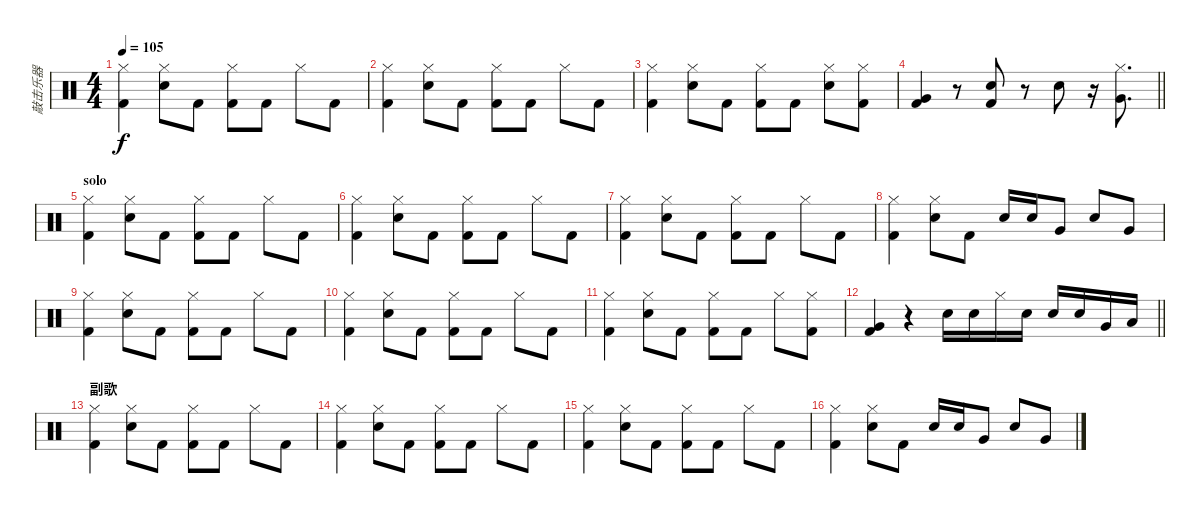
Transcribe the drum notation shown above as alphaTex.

\track ("敲击乐器" "敲击乐器") {instrument percussion}
\staff {score}
\articulation defaults
\ts (4 4)
\tempo 105
\clef neutral
\ks c
("Kick (hit) 2" "Hi-Hat (closed)").4{dy f} ("Electric Snare (hit)" "Hi-Hat (closed)").8 "Kick (hit) 2".8 ("Kick (hit) 2" "Hi-Hat (closed)").8 "Kick (hit) 2".8 "Hi-Hat (closed)".8 "Kick (hit) 2".8 |
("Kick (hit) 2" "Hi-Hat (closed)").4 ("Electric Snare (hit)" "Hi-Hat (closed)").8 "Kick (hit) 2".8 ("Kick (hit) 2" "Hi-Hat (closed)").8 "Kick (hit) 2".8 "Hi-Hat (closed)".8 "Kick (hit) 2".8 |
("Kick (hit) 2" "Hi-Hat (closed)").4 ("Electric Snare (hit)" "Hi-Hat (closed)").8 "Kick (hit) 2".8 ("Kick (hit) 2" "Hi-Hat (closed)").8 "Kick (hit) 2".8 ("Electric Snare (hit)" "Hi-Hat (closed)").8 ("Kick (hit) 2" "Hi-Hat (closed)").8 |
\barLineRight lightlight
("Kick (hit) 2" "Very Low Tom (hit)").4 r.8 ("Electric Snare (hit)" "Kick (hit) 2").8 r.8 "Electric Snare (hit)".8 r.16 ("Hi-Hat (closed)" "Very Low Tom (hit)").8{d} |
\section ("" "solo")
("Kick (hit) 2" "Hi-Hat (closed)").4 ("Electric Snare (hit)" "Hi-Hat (closed)").8 "Kick (hit) 2".8 ("Kick (hit) 2" "Hi-Hat (closed)").8 "Kick (hit) 2".8 "Hi-Hat (closed)".8 "Kick (hit) 2".8 |
("Kick (hit) 2" "Hi-Hat (closed)").4 ("Electric Snare (hit)" "Hi-Hat (closed)").8 "Kick (hit) 2".8 ("Kick (hit) 2" "Hi-Hat (closed)").8 "Kick (hit) 2".8 "Hi-Hat (closed)".8 "Kick (hit) 2".8 |
("Kick (hit) 2" "Hi-Hat (closed)").4 ("Electric Snare (hit)" "Hi-Hat (closed)").8 "Kick (hit) 2".8 ("Kick (hit) 2" "Hi-Hat (closed)").8 "Kick (hit) 2".8 "Hi-Hat (closed)".8 "Kick (hit) 2".8 |
("Kick (hit) 2" "Hi-Hat (closed)").4 ("Electric Snare (hit)" "Hi-Hat (closed)").8 "Kick (hit) 2".8 "Electric Snare (hit)".16 "Electric Snare (hit)".16 "Very Low Tom (hit)".8 "Electric Snare (hit)".8 "Very Low Tom (hit)".8 |
("Kick (hit) 2" "Hi-Hat (closed)").4 ("Electric Snare (hit)" "Hi-Hat (closed)").8 "Kick (hit) 2".8 ("Kick (hit) 2" "Hi-Hat (closed)").8 "Kick (hit) 2".8 "Hi-Hat (closed)".8 "Kick (hit) 2".8 |
("Kick (hit) 2" "Hi-Hat (closed)").4 ("Electric Snare (hit)" "Hi-Hat (closed)").8 "Kick (hit) 2".8 ("Kick (hit) 2" "Hi-Hat (closed)").8 "Kick (hit) 2".8 "Hi-Hat (closed)".8 "Kick (hit) 2".8 |
("Kick (hit) 2" "Hi-Hat (closed)").4 ("Electric Snare (hit)" "Hi-Hat (closed)").8 "Kick (hit) 2".8 ("Kick (hit) 2" "Hi-Hat (closed)").8 "Kick (hit) 2".8 "Hi-Hat (closed)".8 ("Kick (hit) 2" "Hi-Hat (closed)").8 |
\barLineRight lightlight
("Kick (hit) 2" "Very Low Tom (hit)").4 r.4 "Electric Snare (hit)".16 "Electric Snare (hit)".16 "Hi-Hat (closed)".16 "Electric Snare (hit)".16 "Electric Snare (hit)".16 "Electric Snare (hit)".16 "Very Low Tom (hit)".16 "Low Floor Tom (hit)".16 |
\section ("" "副歌")
("Kick (hit) 2" "Hi-Hat (closed)").4 ("Electric Snare (hit)" "Hi-Hat (closed)").8 "Kick (hit) 2".8 ("Kick (hit) 2" "Hi-Hat (closed)").8 "Kick (hit) 2".8 "Hi-Hat (closed)".8 "Kick (hit) 2".8 |
("Kick (hit) 2" "Hi-Hat (closed)").4 ("Electric Snare (hit)" "Hi-Hat (closed)").8 "Kick (hit) 2".8 ("Kick (hit) 2" "Hi-Hat (closed)").8 "Kick (hit) 2".8 "Hi-Hat (closed)".8 "Kick (hit) 2".8 |
("Kick (hit) 2" "Hi-Hat (closed)").4 ("Electric Snare (hit)" "Hi-Hat (closed)").8 "Kick (hit) 2".8 ("Kick (hit) 2" "Hi-Hat (closed)").8 "Kick (hit) 2".8 "Hi-Hat (closed)".8 "Kick (hit) 2".8 |
("Kick (hit) 2" "Hi-Hat (closed)").4 ("Electric Snare (hit)" "Hi-Hat (closed)").8 "Kick (hit) 2".8 "Electric Snare (hit)".16 "Electric Snare (hit)".16 "Very Low Tom (hit)".8 "Electric Snare (hit)".8 "Very Low Tom (hit)".8
